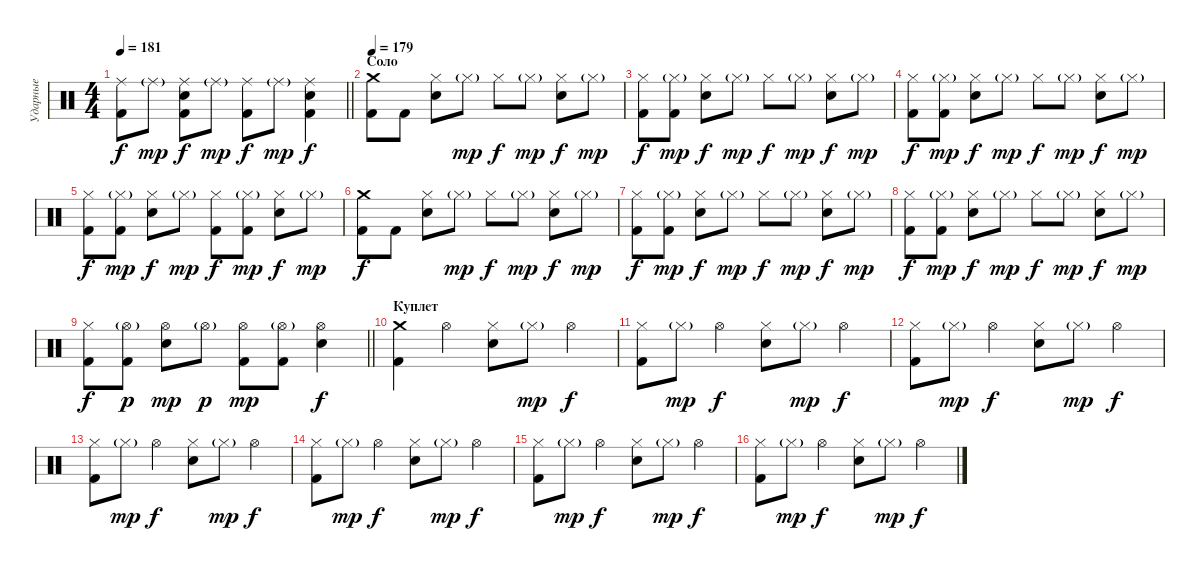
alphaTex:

\track ("Ударные" "Ударные") {instrument percussion}
\staff {score}
\articulation defaults
\ts (4 4)
\tempo 181
\clef neutral
\barLineRight lightlight
\ks c
("Ride (middle)" "Kick (hit) 2").8{dy f} "Ride (middle)"{g}.8{dy mp} ("Ride (middle)" "Electric Snare (hit)" "Kick (hit) 2").8{dy f} "Ride (middle)"{g}.8{dy mp} ("Ride (middle)" "Kick (hit) 2").8{dy f} "Ride (middle)"{g}.8{dy mp} ("Ride (middle)" "Electric Snare (hit)" "Kick (hit) 2").4{dy f} |
\section ("" "Соло")
\tempo 179
("Crash medium (hit)" "Kick (hit) 2").8 "Kick (hit) 2".8 ("Hi-Hat (closed)" "Electric Snare (hit)").8 "Hi-Hat (closed)"{g}.8{dy mp} "Hi-Hat (closed)".8{dy f} "Hi-Hat (closed)"{g}.8{dy mp} ("Hi-Hat (closed)" "Electric Snare (hit)").8{dy f} "Hi-Hat (closed)"{g}.8{dy mp} |
("Hi-Hat (closed)" "Kick (hit) 2").8{dy f} ("Hi-Hat (closed)"{g} "Kick (hit) 2").8{dy mp} ("Hi-Hat (closed)" "Electric Snare (hit)").8{dy f} "Hi-Hat (closed)"{g}.8{dy mp} "Hi-Hat (closed)".8{dy f} "Hi-Hat (closed)"{g}.8{dy mp} ("Hi-Hat (closed)" "Electric Snare (hit)").8{dy f} "Hi-Hat (closed)"{g}.8{dy mp} |
("Hi-Hat (closed)" "Kick (hit) 2").8{dy f} ("Hi-Hat (closed)"{g} "Kick (hit) 2").8{dy mp} ("Hi-Hat (closed)" "Electric Snare (hit)").8{dy f} "Hi-Hat (closed)"{g}.8{dy mp} "Hi-Hat (closed)".8{dy f} "Hi-Hat (closed)"{g}.8{dy mp} ("Hi-Hat (closed)" "Electric Snare (hit)").8{dy f} "Hi-Hat (closed)"{g}.8{dy mp} |
("Hi-Hat (closed)" "Kick (hit) 2").8{dy f} ("Hi-Hat (closed)"{g} "Kick (hit) 2").8{dy mp} ("Hi-Hat (closed)" "Electric Snare (hit)").8{dy f} "Hi-Hat (closed)"{g}.8{dy mp} ("Hi-Hat (closed)" "Kick (hit) 2").8{dy f} ("Hi-Hat (closed)"{g} "Kick (hit) 2").8{dy mp} ("Hi-Hat (closed)" "Electric Snare (hit)").8{dy f} "Hi-Hat (closed)"{g}.8{dy mp} |
("Crash medium (hit)" "Kick (hit) 2").8{dy f} "Kick (hit) 2".8 ("Hi-Hat (closed)" "Electric Snare (hit)").8 "Hi-Hat (closed)"{g}.8{dy mp} "Hi-Hat (closed)".8{dy f} "Hi-Hat (closed)"{g}.8{dy mp} ("Hi-Hat (closed)" "Electric Snare (hit)").8{dy f} "Hi-Hat (closed)"{g}.8{dy mp} |
("Hi-Hat (closed)" "Kick (hit) 2").8{dy f} ("Hi-Hat (closed)"{g} "Kick (hit) 2").8{dy mp} ("Hi-Hat (closed)" "Electric Snare (hit)").8{dy f} "Hi-Hat (closed)"{g}.8{dy mp} "Hi-Hat (closed)".8{dy f} "Hi-Hat (closed)"{g}.8{dy mp} ("Hi-Hat (closed)" "Electric Snare (hit)").8{dy f} "Hi-Hat (closed)"{g}.8{dy mp} |
("Hi-Hat (closed)" "Kick (hit) 2").8{dy f} ("Hi-Hat (closed)"{g} "Kick (hit) 2").8{dy mp} ("Hi-Hat (closed)" "Electric Snare (hit)").8{dy f} "Hi-Hat (closed)"{g}.8{dy mp} "Hi-Hat (closed)".8{dy f} "Hi-Hat (closed)"{g}.8{dy mp} ("Hi-Hat (closed)" "Electric Snare (hit)").8{dy f} "Hi-Hat (closed)"{g}.8{dy mp} |
\barLineRight lightlight
("Hi-Hat (closed)" "Kick (hit) 2").8{dy f} ("Hi-Hat (open)"{g} "Kick (hit) 2").8{dy p} ("Hi-Hat (open)" "Electric Snare (hit)").8{dy mp} "Hi-Hat (open)"{g}.8{dy p} ("Hi-Hat (open)" "Kick (hit) 2").8{dy mp} ("Hi-Hat (open)"{g} "Kick (hit) 2").8 ("Hi-Hat (open)" "Electric Snare (hit)").4{dy f} |
\section ("" "Куплет")
("Crash medium (hit)" "Kick (hit) 2").4 "Hi-Hat (open)".4 ("Hi-Hat (closed)" "Electric Snare (hit)").8 "Hi-Hat (closed)"{g}.8{dy mp} "Hi-Hat (open)".4{dy f} |
("Hi-Hat (closed)" "Kick (hit) 2").8 "Hi-Hat (closed)"{g}.8{dy mp} "Hi-Hat (open)".4{dy f} ("Hi-Hat (closed)" "Electric Snare (hit)").8 "Hi-Hat (closed)"{g}.8{dy mp} "Hi-Hat (open)".4{dy f} |
("Hi-Hat (closed)" "Kick (hit) 2").8 "Hi-Hat (closed)"{g}.8{dy mp} "Hi-Hat (open)".4{dy f} ("Hi-Hat (closed)" "Electric Snare (hit)").8 "Hi-Hat (closed)"{g}.8{dy mp} "Hi-Hat (open)".4{dy f} |
("Hi-Hat (closed)" "Kick (hit) 2").8 "Hi-Hat (closed)"{g}.8{dy mp} "Hi-Hat (open)".4{dy f} ("Hi-Hat (closed)" "Electric Snare (hit)").8 "Hi-Hat (closed)"{g}.8{dy mp} "Hi-Hat (open)".4{dy f} |
("Hi-Hat (closed)" "Kick (hit) 2").8 "Hi-Hat (closed)"{g}.8{dy mp} "Hi-Hat (open)".4{dy f} ("Hi-Hat (closed)" "Electric Snare (hit)").8 "Hi-Hat (closed)"{g}.8{dy mp} "Hi-Hat (open)".4{dy f} |
("Hi-Hat (closed)" "Kick (hit) 2").8 "Hi-Hat (closed)"{g}.8{dy mp} "Hi-Hat (open)".4{dy f} ("Hi-Hat (closed)" "Electric Snare (hit)").8 "Hi-Hat (closed)"{g}.8{dy mp} "Hi-Hat (open)".4{dy f} |
("Hi-Hat (closed)" "Kick (hit) 2").8 "Hi-Hat (closed)"{g}.8{dy mp} "Hi-Hat (open)".4{dy f} ("Hi-Hat (closed)" "Electric Snare (hit)").8 "Hi-Hat (closed)"{g}.8{dy mp} "Hi-Hat (open)".4{dy f}
